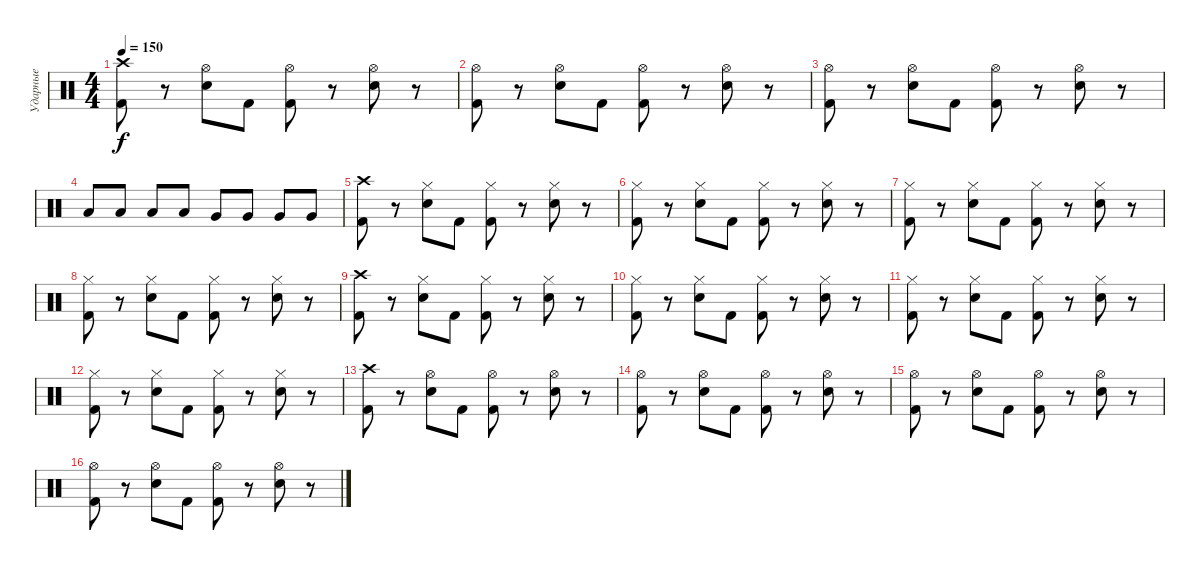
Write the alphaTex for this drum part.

\track ("Ударные" "Ударные") {instrument percussion}
\staff {score}
\articulation defaults
\ts (4 4)
\tempo 150
\clef neutral
\ks c
("Kick (hit) 2" "Crash high (hit)").8{dy f} r.8 ("Hi-Hat (open)" "Snare (hit) 2").8 "Kick (hit) 2".8 ("Hi-Hat (open)" "Kick (hit) 2").8 r.8 ("Hi-Hat (open)" "Snare (hit) 2").8 r.8 |
("Kick (hit) 2" "Hi-Hat (open)").8 r.8 ("Snare (hit) 2" "Hi-Hat (open)").8 "Kick (hit) 2".8 ("Kick (hit) 2" "Hi-Hat (open)").8 r.8 ("Snare (hit) 2" "Hi-Hat (open)").8 r.8 |
("Kick (hit) 2" "Hi-Hat (open)").8 r.8 ("Snare (hit) 2" "Hi-Hat (open)").8 "Kick (hit) 2".8 ("Kick (hit) 2" "Hi-Hat (open)").8 r.8 ("Snare (hit) 2" "Hi-Hat (open)").8 r.8 |
"Low Tom (hit)".8 "Low Tom (hit)".8 "Low Tom (hit)".8 "Low Tom (hit)".8 "Very Low Tom (hit)".8 "Very Low Tom (hit)".8 "Very Low Tom (hit)".8 "Very Low Tom (hit)".8 |
("Kick (hit) 2" "Crash high (hit)").8 r.8 ("Hi-Hat (closed)" "Snare (hit) 2").8 "Kick (hit) 2".8 ("Hi-Hat (closed)" "Kick (hit) 2").8 r.8 ("Hi-Hat (closed)" "Snare (hit) 2").8 r.8 |
("Kick (hit) 2" "Hi-Hat (closed)").8 r.8 ("Snare (hit) 2" "Hi-Hat (closed)").8 "Kick (hit) 2".8 ("Kick (hit) 2" "Hi-Hat (closed)").8 r.8 ("Snare (hit) 2" "Hi-Hat (closed)").8 r.8 |
("Kick (hit) 2" "Hi-Hat (closed)").8 r.8 ("Snare (hit) 2" "Hi-Hat (closed)").8 "Kick (hit) 2".8 ("Kick (hit) 2" "Hi-Hat (closed)").8 r.8 ("Snare (hit) 2" "Hi-Hat (closed)").8 r.8 |
("Kick (hit) 2" "Hi-Hat (closed)").8 r.8 ("Snare (hit) 2" "Hi-Hat (closed)").8 "Kick (hit) 2".8 ("Kick (hit) 2" "Hi-Hat (closed)").8 r.8 ("Snare (hit) 2" "Hi-Hat (closed)").8 r.8 |
("Kick (hit) 2" "Crash high (hit)").8 r.8 ("Hi-Hat (closed)" "Snare (hit) 2").8 "Kick (hit) 2".8 ("Hi-Hat (closed)" "Kick (hit) 2").8 r.8 ("Hi-Hat (closed)" "Snare (hit) 2").8 r.8 |
("Kick (hit) 2" "Hi-Hat (closed)").8 r.8 ("Snare (hit) 2" "Hi-Hat (closed)").8 "Kick (hit) 2".8 ("Kick (hit) 2" "Hi-Hat (closed)").8 r.8 ("Snare (hit) 2" "Hi-Hat (closed)").8 r.8 |
("Kick (hit) 2" "Hi-Hat (closed)").8 r.8 ("Snare (hit) 2" "Hi-Hat (closed)").8 "Kick (hit) 2".8 ("Kick (hit) 2" "Hi-Hat (closed)").8 r.8 ("Snare (hit) 2" "Hi-Hat (closed)").8 r.8 |
("Kick (hit) 2" "Hi-Hat (closed)").8 r.8 ("Snare (hit) 2" "Hi-Hat (closed)").8 "Kick (hit) 2".8 ("Kick (hit) 2" "Hi-Hat (closed)").8 r.8 ("Snare (hit) 2" "Hi-Hat (closed)").8 r.8 |
("Kick (hit) 2" "Crash high (hit)").8 r.8 ("Hi-Hat (open)" "Snare (hit) 2").8 "Kick (hit) 2".8 ("Hi-Hat (open)" "Kick (hit) 2").8 r.8 ("Hi-Hat (open)" "Snare (hit) 2").8 r.8 |
("Kick (hit) 2" "Hi-Hat (open)").8 r.8 ("Snare (hit) 2" "Hi-Hat (open)").8 "Kick (hit) 2".8 ("Kick (hit) 2" "Hi-Hat (open)").8 r.8 ("Snare (hit) 2" "Hi-Hat (open)").8 r.8 |
("Kick (hit) 2" "Hi-Hat (open)").8 r.8 ("Snare (hit) 2" "Hi-Hat (open)").8 "Kick (hit) 2".8 ("Kick (hit) 2" "Hi-Hat (open)").8 r.8 ("Snare (hit) 2" "Hi-Hat (open)").8 r.8 |
("Kick (hit) 2" "Hi-Hat (open)").8 r.8 ("Snare (hit) 2" "Hi-Hat (open)").8 "Kick (hit) 2".8 ("Kick (hit) 2" "Hi-Hat (open)").8 r.8 ("Snare (hit) 2" "Hi-Hat (open)").8 r.8
